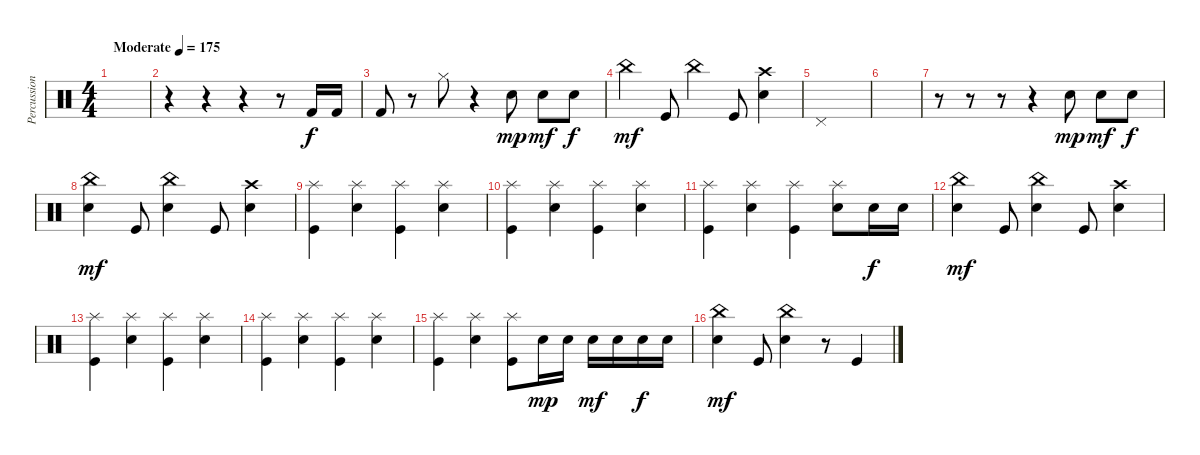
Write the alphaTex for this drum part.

\track ("Percussion" "Percussion") {instrument percussion}
\staff {score}
\articulation defaults
\ts (4 4)
\tempo (175 "Moderate")
\clef neutral
\ks c
|
r.4 r.4 r.4 r.8 "Kick (hit) 2".16 "Kick (hit) 2".16 |
"Kick (hit) 2".8 r.8 "Hi-Hat (closed)".8 r.4 "Snare (hit) 2".8{dy mp} "Snare (hit) 2".8{dy mf} "Snare (hit) 2".8{dy f} |
"China (hit)".4{dy mf} "Kick (hit)".8 "China (hit)".4 "Kick (hit)".8 ("Crash high (hit)" "Snare (hit) 2").4 |
"Pedal Hi-Hat (hit)".1 |
|
r.8 r.8 r.8 r.4 "Snare (hit) 2".8{dy mp} "Snare (hit) 2".8{dy mf} "Snare (hit) 2".8{dy f} |
("China (hit)" "Snare (hit) 2").4{dy mf} "Kick (hit)".8 ("China (hit)" "Snare (hit) 2").4 "Kick (hit)".8 ("Crash high (hit)" "Snare (hit) 2").4 |
("Splash (hit)" "Kick (hit)").4 ("Splash (hit)" "Snare (hit) 2").4 ("Splash (hit)" "Kick (hit)").4 ("Splash (hit)" "Snare (hit) 2").4 |
("Splash (hit)" "Kick (hit)").4 ("Splash (hit)" "Snare (hit) 2").4 ("Splash (hit)" "Kick (hit)").4 ("Splash (hit)" "Snare (hit) 2").4 |
("Splash (hit)" "Kick (hit)").4 ("Splash (hit)" "Snare (hit) 2").4 ("Splash (hit)" "Kick (hit)").4 ("Splash (hit)" "Snare (hit) 2").8 "Snare (hit) 2".16{dy f} "Snare (hit) 2".16 |
("China (hit)" "Snare (hit) 2").4{dy mf} "Kick (hit)".8 ("China (hit)" "Snare (hit) 2").4 "Kick (hit)".8 ("Crash high (hit)" "Snare (hit) 2").4 |
("Splash (hit)" "Kick (hit)").4 ("Splash (hit)" "Snare (hit) 2").4 ("Splash (hit)" "Kick (hit)").4 ("Splash (hit)" "Snare (hit) 2").4 |
("Splash (hit)" "Kick (hit)").4 ("Splash (hit)" "Snare (hit) 2").4 ("Splash (hit)" "Kick (hit)").4 ("Splash (hit)" "Snare (hit) 2").4 |
("Splash (hit)" "Kick (hit)").4 ("Splash (hit)" "Snare (hit) 2").4 ("Splash (hit)" "Kick (hit)").8 "Snare (hit) 2".16{dy mp} "Snare (hit) 2".16 "Snare (hit) 2".16{dy mf} "Snare (hit) 2".16 "Snare (hit) 2".16{dy f} "Snare (hit) 2".16 |
("China (hit)" "Snare (hit) 2").4{dy mf} "Kick (hit)".8 ("China (hit)" "Snare (hit) 2").4 r.8 "Kick (hit)".4
